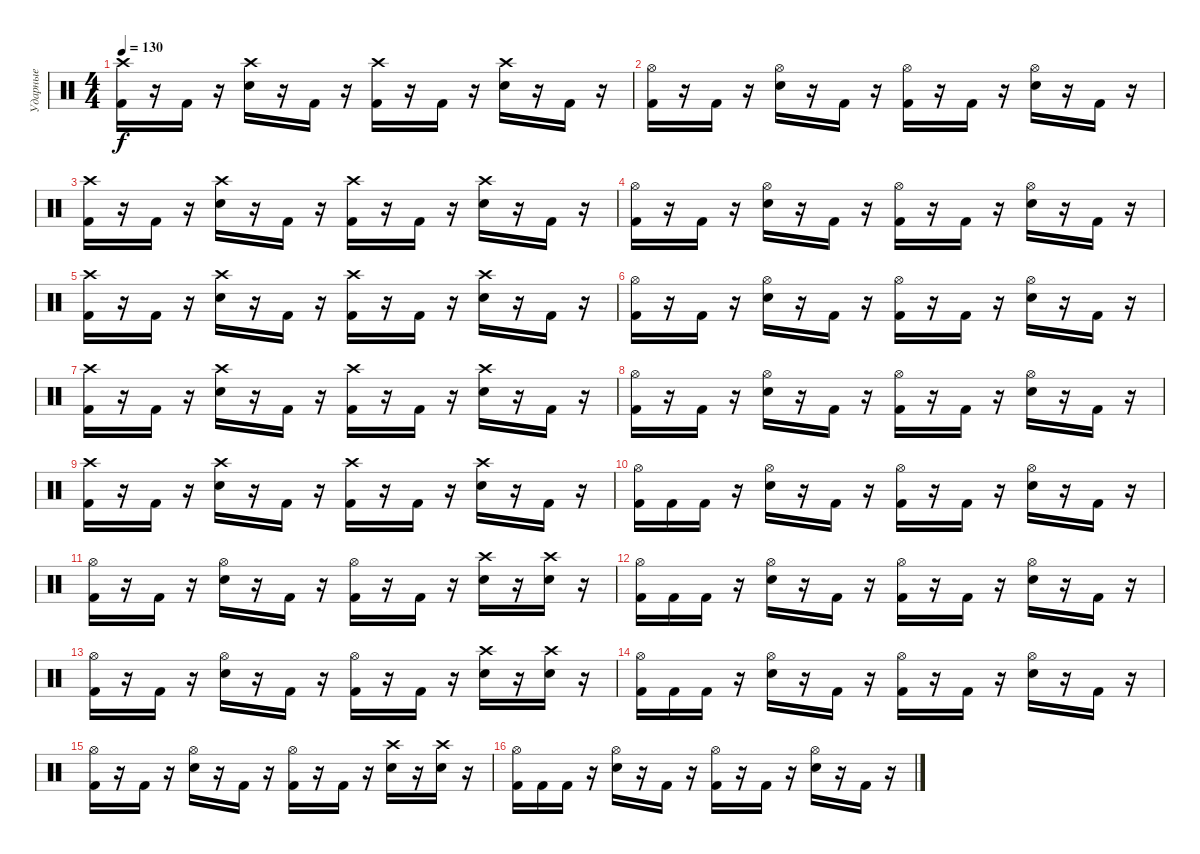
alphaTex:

\track ("Ударные" "Ударные") {instrument percussion}
\staff {score}
\articulation defaults
\ts (4 4)
\tempo 130
\clef neutral
\ks c
("Crash high (hit)" "Kick (hit) 2").16{dy f} r.16 "Kick (hit) 2".16 r.16 ("Crash high (hit)" "Electric Snare (hit)").16 r.16 "Kick (hit) 2".16 r.16 ("Crash high (hit)" "Kick (hit) 2").16 r.16 "Kick (hit) 2".16 r.16 ("Crash high (hit)" "Electric Snare (hit)").16 r.16 "Kick (hit) 2".16 r.16 |
("Hi-Hat (open)" "Kick (hit) 2").16 r.16 "Kick (hit) 2".16 r.16 ("Hi-Hat (open)" "Electric Snare (hit)").16 r.16 "Kick (hit) 2".16 r.16 ("Hi-Hat (open)" "Kick (hit) 2").16 r.16 "Kick (hit) 2".16 r.16 ("Hi-Hat (open)" "Electric Snare (hit)").16 r.16 "Kick (hit) 2".16 r.16 |
("Crash high (hit)" "Kick (hit) 2").16 r.16 "Kick (hit) 2".16 r.16 ("Crash high (hit)" "Electric Snare (hit)").16 r.16 "Kick (hit) 2".16 r.16 ("Crash high (hit)" "Kick (hit) 2").16 r.16 "Kick (hit) 2".16 r.16 ("Crash high (hit)" "Electric Snare (hit)").16 r.16 "Kick (hit) 2".16 r.16 |
("Hi-Hat (open)" "Kick (hit) 2").16 r.16 "Kick (hit) 2".16 r.16 ("Hi-Hat (open)" "Electric Snare (hit)").16 r.16 "Kick (hit) 2".16 r.16 ("Hi-Hat (open)" "Kick (hit) 2").16 r.16 "Kick (hit) 2".16 r.16 ("Hi-Hat (open)" "Electric Snare (hit)").16 r.16 "Kick (hit) 2".16 r.16 |
("Crash high (hit)" "Kick (hit) 2").16 r.16 "Kick (hit) 2".16 r.16 ("Crash high (hit)" "Electric Snare (hit)").16 r.16 "Kick (hit) 2".16 r.16 ("Crash high (hit)" "Kick (hit) 2").16 r.16 "Kick (hit) 2".16 r.16 ("Crash high (hit)" "Electric Snare (hit)").16 r.16 "Kick (hit) 2".16 r.16 |
("Hi-Hat (open)" "Kick (hit) 2").16 r.16 "Kick (hit) 2".16 r.16 ("Hi-Hat (open)" "Electric Snare (hit)").16 r.16 "Kick (hit) 2".16 r.16 ("Hi-Hat (open)" "Kick (hit) 2").16 r.16 "Kick (hit) 2".16 r.16 ("Hi-Hat (open)" "Electric Snare (hit)").16 r.16 "Kick (hit) 2".16 r.16 |
("Crash high (hit)" "Kick (hit) 2").16 r.16 "Kick (hit) 2".16 r.16 ("Crash high (hit)" "Electric Snare (hit)").16 r.16 "Kick (hit) 2".16 r.16 ("Crash high (hit)" "Kick (hit) 2").16 r.16 "Kick (hit) 2".16 r.16 ("Crash high (hit)" "Electric Snare (hit)").16 r.16 "Kick (hit) 2".16 r.16 |
("Hi-Hat (open)" "Kick (hit) 2").16 r.16 "Kick (hit) 2".16 r.16 ("Hi-Hat (open)" "Electric Snare (hit)").16 r.16 "Kick (hit) 2".16 r.16 ("Hi-Hat (open)" "Kick (hit) 2").16 r.16 "Kick (hit) 2".16 r.16 ("Hi-Hat (open)" "Electric Snare (hit)").16 r.16 "Kick (hit) 2".16 r.16 |
("Crash high (hit)" "Kick (hit) 2").16 r.16 "Kick (hit) 2".16 r.16 ("Crash high (hit)" "Electric Snare (hit)").16 r.16 "Kick (hit) 2".16 r.16 ("Crash high (hit)" "Kick (hit) 2").16 r.16 "Kick (hit) 2".16 r.16 ("Crash high (hit)" "Electric Snare (hit)").16 r.16 "Kick (hit) 2".16 r.16 |
("Hi-Hat (open)" "Kick (hit) 2").16 "Kick (hit) 2".16 "Kick (hit) 2".16 r.16 ("Hi-Hat (open)" "Electric Snare (hit)").16 r.16 "Kick (hit) 2".16 r.16 ("Hi-Hat (open)" "Kick (hit) 2").16 r.16 "Kick (hit) 2".16 r.16 ("Hi-Hat (open)" "Electric Snare (hit)").16 r.16 "Kick (hit) 2".16 r.16 |
("Hi-Hat (open)" "Kick (hit) 2").16 r.16 "Kick (hit) 2".16 r.16 ("Hi-Hat (open)" "Electric Snare (hit)").16 r.16 "Kick (hit) 2".16 r.16 ("Hi-Hat (open)" "Kick (hit) 2").16 r.16 "Kick (hit) 2".16 r.16 ("Crash high (hit)" "Electric Snare (hit)").16 r.16 ("Crash high (hit)" "Electric Snare (hit)").16 r.16 |
("Hi-Hat (open)" "Kick (hit) 2").16 "Kick (hit) 2".16 "Kick (hit) 2".16 r.16 ("Hi-Hat (open)" "Electric Snare (hit)").16 r.16 "Kick (hit) 2".16 r.16 ("Hi-Hat (open)" "Kick (hit) 2").16 r.16 "Kick (hit) 2".16 r.16 ("Hi-Hat (open)" "Electric Snare (hit)").16 r.16 "Kick (hit) 2".16 r.16 |
("Hi-Hat (open)" "Kick (hit) 2").16 r.16 "Kick (hit) 2".16 r.16 ("Hi-Hat (open)" "Electric Snare (hit)").16 r.16 "Kick (hit) 2".16 r.16 ("Hi-Hat (open)" "Kick (hit) 2").16 r.16 "Kick (hit) 2".16 r.16 ("Crash high (hit)" "Electric Snare (hit)").16 r.16 ("Crash high (hit)" "Electric Snare (hit)").16 r.16 |
("Hi-Hat (open)" "Kick (hit) 2").16 "Kick (hit) 2".16 "Kick (hit) 2".16 r.16 ("Hi-Hat (open)" "Electric Snare (hit)").16 r.16 "Kick (hit) 2".16 r.16 ("Hi-Hat (open)" "Kick (hit) 2").16 r.16 "Kick (hit) 2".16 r.16 ("Hi-Hat (open)" "Electric Snare (hit)").16 r.16 "Kick (hit) 2".16 r.16 |
("Hi-Hat (open)" "Kick (hit) 2").16 r.16 "Kick (hit) 2".16 r.16 ("Hi-Hat (open)" "Electric Snare (hit)").16 r.16 "Kick (hit) 2".16 r.16 ("Hi-Hat (open)" "Kick (hit) 2").16 r.16 "Kick (hit) 2".16 r.16 ("Crash high (hit)" "Electric Snare (hit)").16 r.16 ("Crash high (hit)" "Electric Snare (hit)").16 r.16 |
("Hi-Hat (open)" "Kick (hit) 2").16 "Kick (hit) 2".16 "Kick (hit) 2".16 r.16 ("Hi-Hat (open)" "Electric Snare (hit)").16 r.16 "Kick (hit) 2".16 r.16 ("Hi-Hat (open)" "Kick (hit) 2").16 r.16 "Kick (hit) 2".16 r.16 ("Hi-Hat (open)" "Electric Snare (hit)").16 r.16 "Kick (hit) 2".16 r.16
